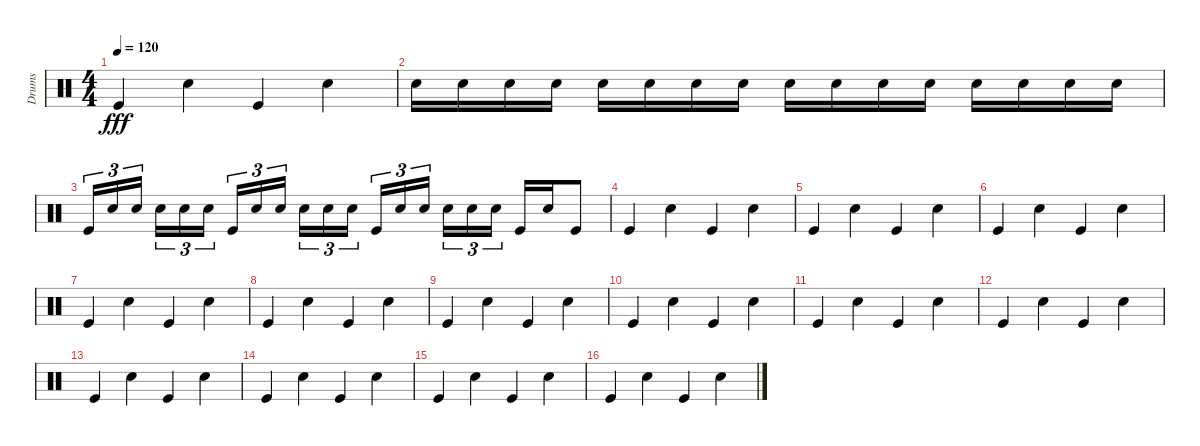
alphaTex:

\track ("Drums" "Drums") {instrument percussion}
\staff {score}
\articulation defaults
\ts (4 4)
\tempo 120
\clef neutral
\ks c "Kick (hit)".4{dy fff} "Snare (hit) 2".4 "Kick (hit)".4 "Snare (hit) 2".4
|
"Snare (hit) 2".16 "Snare (hit) 2".16 "Snare (hit) 2".16 "Snare (hit) 2".16 "Snare (hit) 2".16 "Snare (hit) 2".16 "Snare (hit) 2".16 "Snare (hit) 2".16 "Snare (hit) 2".16 "Snare (hit) 2".16 "Snare (hit) 2".16 "Snare (hit) 2".16 "Snare (hit) 2".16 "Snare (hit) 2".16 "Snare (hit) 2".16 "Snare (hit) 2".16 |
"Kick (hit)".16{tu (3 2)} "Snare (hit) 2".16{tu (3 2)} "Snare (hit) 2".16{tu (3 2) beam splitsecondary} "Snare (hit) 2".16{tu (3 2)} "Snare (hit) 2".16{tu (3 2)} "Snare (hit) 2".16{tu (3 2)} "Kick (hit)".16{tu (3 2)} "Snare (hit) 2".16{tu (3 2)} "Snare (hit) 2".16{tu (3 2) beam splitsecondary} "Snare (hit) 2".16{tu (3 2)} "Snare (hit) 2".16{tu (3 2)} "Snare (hit) 2".16{tu (3 2)} "Kick (hit)".16{tu (3 2)} "Snare (hit) 2".16{tu (3 2)} "Snare (hit) 2".16{tu (3 2) beam splitsecondary} "Snare (hit) 2".16{tu (3 2)} "Snare (hit) 2".16{tu (3 2)} "Snare (hit) 2".16{tu (3 2)} "Kick (hit)".16 "Snare (hit) 2".16 "Kick (hit)".8 |
"Kick (hit)".4 "Snare (hit) 2".4 "Kick (hit)".4 "Snare (hit) 2".4 |
"Kick (hit)".4 "Snare (hit) 2".4 "Kick (hit)".4 "Snare (hit) 2".4 |
"Kick (hit)".4 "Snare (hit) 2".4 "Kick (hit)".4 "Snare (hit) 2".4 |
"Kick (hit)".4 "Snare (hit) 2".4 "Kick (hit)".4 "Snare (hit) 2".4 |
"Kick (hit)".4 "Snare (hit) 2".4 "Kick (hit)".4 "Snare (hit) 2".4 |
"Kick (hit)".4 "Snare (hit) 2".4 "Kick (hit)".4 "Snare (hit) 2".4 |
"Kick (hit)".4 "Snare (hit) 2".4 "Kick (hit)".4 "Snare (hit) 2".4 |
"Kick (hit)".4 "Snare (hit) 2".4 "Kick (hit)".4 "Snare (hit) 2".4 |
"Kick (hit)".4 "Snare (hit) 2".4 "Kick (hit)".4 "Snare (hit) 2".4 |
"Kick (hit)".4 "Snare (hit) 2".4 "Kick (hit)".4 "Snare (hit) 2".4 |
"Kick (hit)".4 "Snare (hit) 2".4 "Kick (hit)".4 "Snare (hit) 2".4 |
"Kick (hit)".4 "Snare (hit) 2".4 "Kick (hit)".4 "Snare (hit) 2".4 |
"Kick (hit)".4 "Snare (hit) 2".4 "Kick (hit)".4 "Snare (hit) 2".4
